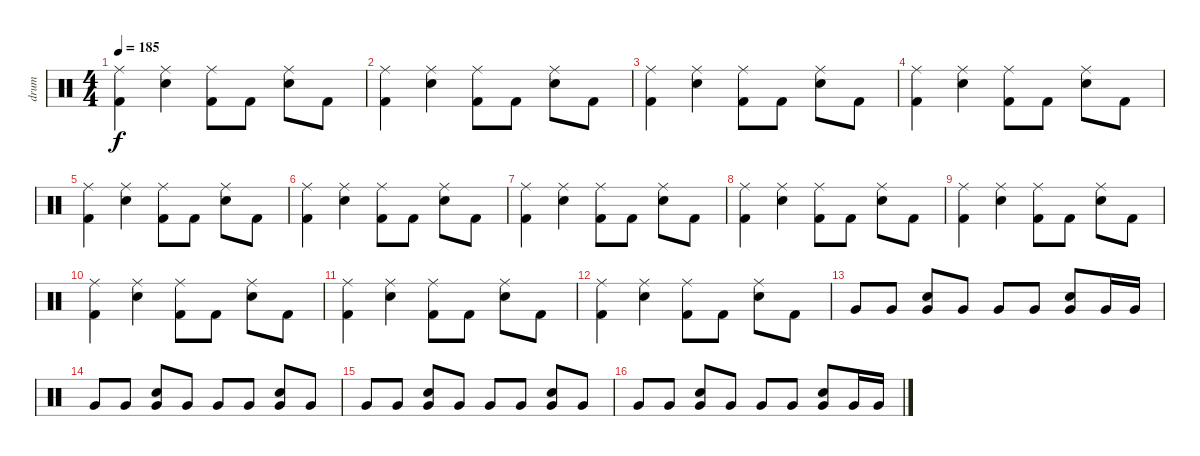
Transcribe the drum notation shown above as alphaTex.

\track ("drum" "drum") {instrument percussion}
\staff {score}
\articulation defaults
\ts (4 4)
\tempo 185
\clef neutral
\ks c
("Ride (middle)" "Kick (hit) 2").4{dy f} ("Ride (middle)" "Snare (hit) 2").4 ("Ride (middle)" "Kick (hit) 2").8 "Kick (hit) 2".8 ("Ride (middle)" "Snare (hit) 2").8 "Kick (hit) 2".8 |
("Ride (middle)" "Kick (hit) 2").4 ("Ride (middle)" "Snare (hit) 2").4 ("Ride (middle)" "Kick (hit) 2").8 "Kick (hit) 2".8 ("Ride (middle)" "Snare (hit) 2").8 "Kick (hit) 2".8 |
("Ride (middle)" "Kick (hit) 2").4 ("Ride (middle)" "Snare (hit) 2").4 ("Ride (middle)" "Kick (hit) 2").8 "Kick (hit) 2".8 ("Ride (middle)" "Snare (hit) 2").8 "Kick (hit) 2".8 |
("Ride (middle)" "Kick (hit) 2").4 ("Ride (middle)" "Snare (hit) 2").4 ("Ride (middle)" "Kick (hit) 2").8 "Kick (hit) 2".8 ("Ride (middle)" "Snare (hit) 2").8 "Kick (hit) 2".8 |
("Ride (middle)" "Kick (hit) 2").4 ("Ride (middle)" "Snare (hit) 2").4 ("Ride (middle)" "Kick (hit) 2").8 "Kick (hit) 2".8 ("Ride (middle)" "Snare (hit) 2").8 "Kick (hit) 2".8 |
("Ride (middle)" "Kick (hit) 2").4 ("Ride (middle)" "Snare (hit) 2").4 ("Ride (middle)" "Kick (hit) 2").8 "Kick (hit) 2".8 ("Ride (middle)" "Snare (hit) 2").8 "Kick (hit) 2".8 |
("Ride (middle)" "Kick (hit) 2").4 ("Ride (middle)" "Snare (hit) 2").4 ("Ride (middle)" "Kick (hit) 2").8 "Kick (hit) 2".8 ("Ride (middle)" "Snare (hit) 2").8 "Kick (hit) 2".8 |
("Ride (middle)" "Kick (hit) 2").4 ("Ride (middle)" "Snare (hit) 2").4 ("Ride (middle)" "Kick (hit) 2").8 "Kick (hit) 2".8 ("Ride (middle)" "Snare (hit) 2").8 "Kick (hit) 2".8 |
("Ride (middle)" "Kick (hit) 2").4 ("Ride (middle)" "Snare (hit) 2").4 ("Ride (middle)" "Kick (hit) 2").8 "Kick (hit) 2".8 ("Ride (middle)" "Snare (hit) 2").8 "Kick (hit) 2".8 |
("Ride (middle)" "Kick (hit) 2").4 ("Ride (middle)" "Snare (hit) 2").4 ("Ride (middle)" "Kick (hit) 2").8 "Kick (hit) 2".8 ("Ride (middle)" "Snare (hit) 2").8 "Kick (hit) 2".8 |
("Ride (middle)" "Kick (hit) 2").4 ("Ride (middle)" "Snare (hit) 2").4 ("Ride (middle)" "Kick (hit) 2").8 "Kick (hit) 2".8 ("Ride (middle)" "Snare (hit) 2").8 "Kick (hit) 2".8 |
("Ride (middle)" "Kick (hit) 2").4 ("Ride (middle)" "Snare (hit) 2").4 ("Ride (middle)" "Kick (hit) 2").8 "Kick (hit) 2".8 ("Ride (middle)" "Snare (hit) 2").8 "Kick (hit) 2".8 |
"Very Low Tom (hit)".8 "Very Low Tom (hit)".8 ("Snare (hit) 2" "Very Low Tom (hit)").8 "Very Low Tom (hit)".8 "Very Low Tom (hit)".8 "Very Low Tom (hit)".8 ("Snare (hit) 2" "Very Low Tom (hit)").8 "Very Low Tom (hit)".16 "Very Low Tom (hit)".16 |
"Very Low Tom (hit)".8 "Very Low Tom (hit)".8 ("Snare (hit) 2" "Very Low Tom (hit)").8 "Very Low Tom (hit)".8 "Very Low Tom (hit)".8 "Very Low Tom (hit)".8 ("Snare (hit) 2" "Very Low Tom (hit)").8 "Very Low Tom (hit)".8 |
"Very Low Tom (hit)".8 "Very Low Tom (hit)".8 ("Snare (hit) 2" "Very Low Tom (hit)").8 "Very Low Tom (hit)".8 "Very Low Tom (hit)".8 "Very Low Tom (hit)".8 ("Snare (hit) 2" "Very Low Tom (hit)").8 "Very Low Tom (hit)".8 |
"Very Low Tom (hit)".8 "Very Low Tom (hit)".8 ("Snare (hit) 2" "Very Low Tom (hit)").8 "Very Low Tom (hit)".8 "Very Low Tom (hit)".8 "Very Low Tom (hit)".8 ("Snare (hit) 2" "Very Low Tom (hit)").8 "Very Low Tom (hit)".16 "Very Low Tom (hit)".16
